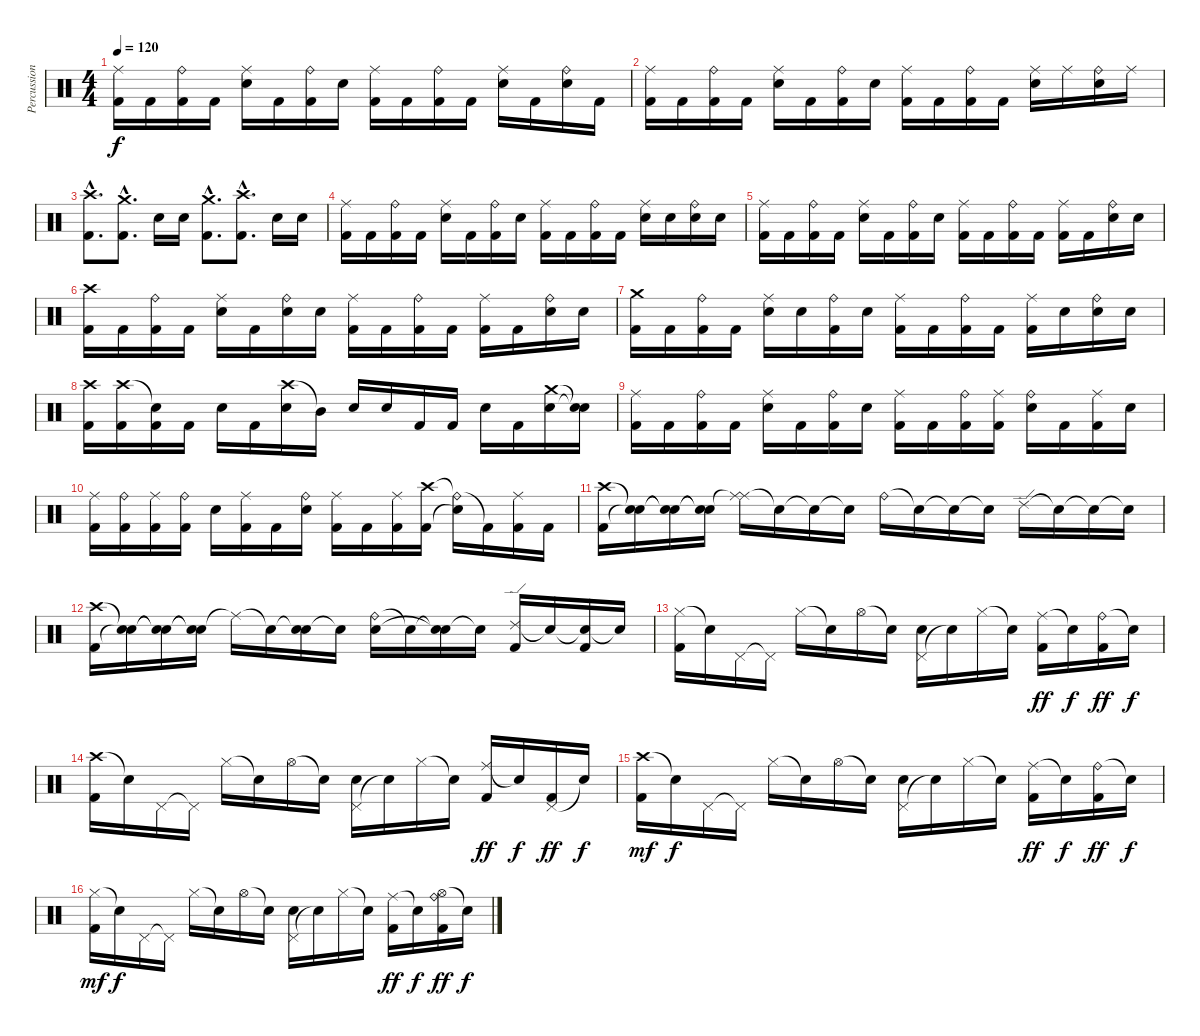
\track ("Percussioni" "Percussion") {instrument percussion}
\staff {score}
\articulation defaults
\ts (4 4)
\tempo 120
\clef neutral
\ks c
("Ride (middle)" "Kick (hit) 2").16{dy f} "Kick (hit) 2".16 ("Ride (bell)" "Kick (hit) 2").16 "Kick (hit) 2".16 ("Ride (middle)" "Metronome (bell)").16 "Kick (hit) 2".16 ("Ride (bell)" "Kick (hit) 2").16 "Metronome (bell)".16 ("Ride (middle)" "Kick (hit) 2").16 "Kick (hit) 2".16 ("Ride (bell)" "Kick (hit) 2").16 "Kick (hit) 2".16 ("Ride (middle)" "Metronome (bell)").16 "Kick (hit) 2".16 ("Ride (bell)" "Metronome (bell)").16 "Kick (hit) 2".16 |
("Ride (middle)" "Kick (hit) 2").16 "Kick (hit) 2".16 ("Ride (bell)" "Kick (hit) 2").16 "Kick (hit) 2".16 ("Ride (middle)" "Metronome (bell)").16 "Kick (hit) 2".16 ("Ride (bell)" "Kick (hit) 2").16 "Metronome (bell)".16 ("Ride (middle)" "Kick (hit) 2").16 "Kick (hit) 2".16 ("Ride (bell)" "Kick (hit) 2").16 "Kick (hit) 2".16 ("Ride (middle)" "Metronome (bell)").16 "Ride (middle)".16 ("Ride (bell)" "Metronome (bell)").16 "Ride (middle)".16 |
("Crash high (hit)"{hac} "Kick (hit) 2"{hac}).8{d} ("Crash medium (hit)"{hac} "Kick (hit) 2"{hac}).8{d} "Metronome (bell)".16 "Metronome (bell)".16 ("Crash medium (hit)"{hac} "Kick (hit) 2"{hac}).8{d} ("Crash high (hit)"{hac} "Kick (hit) 2"{hac}).8{d} "Metronome (bell)".16 "Metronome (bell)".16 |
("Ride (middle)" "Kick (hit) 2").16 "Kick (hit) 2".16 ("Ride (bell)" "Kick (hit) 2").16 "Kick (hit) 2".16 ("Ride (middle)" "Metronome (bell)").16 "Kick (hit) 2".16 ("Ride (bell)" "Kick (hit) 2").16 "Metronome (bell)".16 ("Ride (middle)" "Kick (hit) 2").16 "Kick (hit) 2".16 ("Ride (bell)" "Kick (hit) 2").16 "Kick (hit) 2".16 ("Ride (middle)" "Metronome (bell)").16 "Metronome (bell)".16 ("Ride (bell)" "Metronome (bell)").16 "Metronome (bell)".16 |
("Ride (middle)" "Kick (hit) 2").16 "Kick (hit) 2".16 ("Ride (bell)" "Kick (hit) 2").16 "Kick (hit) 2".16 ("Ride (middle)" "Metronome (bell)").16 "Kick (hit) 2".16 ("Ride (bell)" "Kick (hit) 2").16 "Metronome (bell)".16 ("Ride (middle)" "Kick (hit) 2").16 "Kick (hit) 2".16 ("Ride (bell)" "Kick (hit) 2").16 "Kick (hit) 2".16 ("Ride (middle)" "Kick (hit) 2").16 "Kick (hit) 2".16 ("Ride (bell)" "Metronome (bell)").16 "Metronome (bell)".16 |
("Crash high (hit)" "Kick (hit) 2").16 "Kick (hit) 2".16 ("Ride (bell)" "Kick (hit) 2").16 "Kick (hit) 2".16 ("Ride (middle)" "Metronome (bell)").16 "Kick (hit) 2".16 ("Ride (bell)" "Metronome (bell)").16 "Metronome (bell)".16 ("Ride (middle)" "Kick (hit) 2").16 "Kick (hit) 2".16 ("Ride (bell)" "Kick (hit) 2").16 "Kick (hit) 2".16 ("Ride (middle)" "Kick (hit) 2").16 "Kick (hit) 2".16 ("Ride (bell)" "Metronome (bell)").16 "Metronome (bell)".16 |
("Crash medium (hit)" "Kick (hit) 2").16 "Kick (hit) 2".16 ("Ride (bell)" "Kick (hit) 2").16 "Kick (hit) 2".16 ("Ride (middle)" "Metronome (bell)").16 "Metronome (bell)".16 ("Ride (bell)" "Kick (hit) 2").16 "Metronome (bell)".16 ("Ride (middle)" "Kick (hit) 2").16 "Kick (hit) 2".16 ("Ride (bell)" "Kick (hit) 2").16 "Kick (hit) 2".16 ("Ride (middle)" "Kick (hit) 2").16 "Metronome (bell)".16 ("Ride (bell)" "Metronome (bell)").16 "Metronome (bell)".16 |
("Crash high (hit)" "Kick (hit) 2").16 ("Crash high (hit)" "Kick (hit) 2").16 ("Snare (hit)"{t} "Kick (hit) 2").16 "Kick (hit) 2".16 "Metronome (bell)".16 "Kick (hit) 2".16 ("Crash high (hit)" "Metronome (bell)").16 "Mid Tom (hit)"{t}.16 "Metronome (bell)".16 "Metronome (bell)".16 "Kick (hit) 2".16 "Kick (hit) 2".16 "Metronome (bell)".16 "Kick (hit) 2".16 ("Crash medium (hit)" "Metronome (bell)").16 ("Snare (hit)"{t} "Snare (hit)"{t}).16 |
("Ride (middle)" "Kick (hit) 2").16 "Kick (hit) 2".16 ("Ride (bell)" "Kick (hit) 2").16 "Kick (hit) 2".16 ("Ride (middle)" "Metronome (bell)").16 "Kick (hit) 2".16 ("Ride (bell)" "Kick (hit) 2").16 "Metronome (bell)".16 ("Ride (middle)" "Kick (hit) 2").16 "Kick (hit) 2".16 ("Ride (bell)" "Kick (hit) 2").16 ("Ride (middle)" "Kick (hit) 2").16 ("Ride (bell)" "Metronome (bell)").16 "Kick (hit) 2".16 ("Ride (middle)" "Kick (hit) 2").16 "Metronome (bell)".16 |
("Ride (middle)" "Kick (hit) 2").16 ("Ride (bell)" "Kick (hit) 2").16 ("Ride (middle)" "Kick (hit) 2").16 ("Ride (bell)" "Kick (hit) 2").16 "Metronome (bell)".16 ("Ride (middle)" "Kick (hit) 2").16 "Kick (hit) 2".16 ("Ride (bell)" "Metronome (bell)").16 ("Ride (middle)" "Kick (hit) 2").16 "Kick (hit) 2".16 ("Ride (middle)" "Kick (hit) 2").16 ("Crash high (hit)" "Kick (hit) 2").16 ("Ride (bell)"{t} "Metronome (bell)"{t}).16 "Kick (hit) 2"{t}.16 ("Ride (middle)" "Kick (hit) 2").16 "Kick (hit) 2".16 |
("Crash high (hit)" "Kick (hit) 2").16 ("Snare (hit)"{t} "Snare (hit)"{t}).16 ("Snare (hit)"{t} "Snare (hit)"{t}).16 ("Snare (hit)"{t} "Snare (hit)"{t}).16 ("Ride (middle)"{t} "Ride (middle)").16 "Snare (hit)"{t}.16 "Snare (hit)"{t}.16 "Snare (hit)"{t}.16 "Ride (bell)".16 "Snare (hit)"{t}.16 "Snare (hit)"{t}.16 "Snare (hit)"{t}.16 "Ride (edge) 2".16 "Snare (hit)"{t}.16 "Snare (hit)"{t}.16 "Snare (hit)"{t}.16 |
("Crash high (hit)" "Kick (hit) 2").16 ("Snare (hit)"{t} "Snare (hit)"{t}).16 ("Snare (hit)"{t} "Snare (hit)"{t}).16 ("Snare (hit)"{t} "Snare (hit)"{t}).16 "Ride (middle)"{t}.16 "Snare (hit)"{t}.16 ("Snare (hit)"{t} "Metronome (bell)").16 "Snare (hit)"{t}.16 ("Ride (bell)" "Metronome (bell)").16 "Snare (hit)"{t}.16 ("Snare (hit)"{t} "Metronome (bell)"{t}).16 "Snare (hit)"{t}.16 ("Ride (edge) 2" "Kick (hit) 2").16 "Snare (hit)"{t}.16 ("Snare (hit)"{t} "Kick (hit) 2").16 "Snare (hit)"{t}.16 |
("Hi-Hat (closed)" "Kick (hit) 2").16 "Snare (hit)"{t}.16 "Pedal Hi-Hat (hit)".16 "Pedal Hi-Hat (hit)"{t}.16 "Hi-Hat (closed)".16 "Snare (hit)"{t}.16 "Hi-Hat (open)".16 "Snare (hit)"{t}.16 ("Pedal Hi-Hat (hit)" "Metronome (bell)").16 "Snare (hit)"{t}.16 "Hi-Hat (closed)".16 "Snare (hit)"{t}.16 ("Ride (middle)" "Kick (hit) 2").16{dy ff} "Snare (hit)"{t}.16{dy f} ("Ride (bell)" "Kick (hit) 2").16{dy ff} "Snare (hit)"{t}.16{dy f} |
("Crash high (hit)" "Kick (hit) 2").16 "Snare (hit)"{t}.16 "Pedal Hi-Hat (hit)".16 "Pedal Hi-Hat (hit)"{t}.16 "Hi-Hat (closed)".16 "Snare (hit)"{t}.16 "Hi-Hat (open)".16 "Snare (hit)"{t}.16 ("Pedal Hi-Hat (hit)" "Metronome (bell)").16 "Snare (hit)"{t}.16 "Hi-Hat (closed)".16 "Snare (hit)"{t}.16 ("Ride (middle)" "Kick (hit) 2").16{dy ff} "Snare (hit)"{t}.16{dy f} ("Pedal Hi-Hat (hit)" "Kick (hit) 2").16{dy ff} "Snare (hit)"{t}.16{dy f} |
("Crash high (hit)" "Kick (hit) 2").16{dy mf} "Snare (hit)"{t}.16{dy f} "Pedal Hi-Hat (hit)".16 "Pedal Hi-Hat (hit)"{t}.16 "Hi-Hat (closed)".16 "Snare (hit)"{t}.16 "Hi-Hat (open)".16 "Snare (hit)"{t}.16 ("Pedal Hi-Hat (hit)" "Metronome (bell)").16 "Snare (hit)"{t}.16 "Hi-Hat (closed)".16 "Snare (hit)"{t}.16 ("Ride (middle)" "Kick (hit) 2").16{dy ff} "Snare (hit)"{t}.16{dy f} ("Ride (bell)" "Kick (hit) 2").16{dy ff} "Snare (hit)"{t}.16{dy f} |
("Hi-Hat (closed)" "Kick (hit) 2").16{dy mf} "Snare (hit)"{t}.16{dy f} "Pedal Hi-Hat (hit)".16 "Pedal Hi-Hat (hit)"{t}.16 "Hi-Hat (closed)".16 "Snare (hit)"{t}.16 "Hi-Hat (open)".16 "Snare (hit)"{t}.16 ("Pedal Hi-Hat (hit)" "Metronome (bell)").16 "Snare (hit)"{t}.16 "Hi-Hat (closed)".16 "Snare (hit)"{t}.16 ("Ride (middle)" "Kick (hit) 2").16{dy ff} "Snare (hit)"{t}.16{dy f} ("Hi-Hat (open)" "Ride (bell)" "Kick (hit) 2").16{dy ff} "Snare (hit)"{t}.16{dy f}
